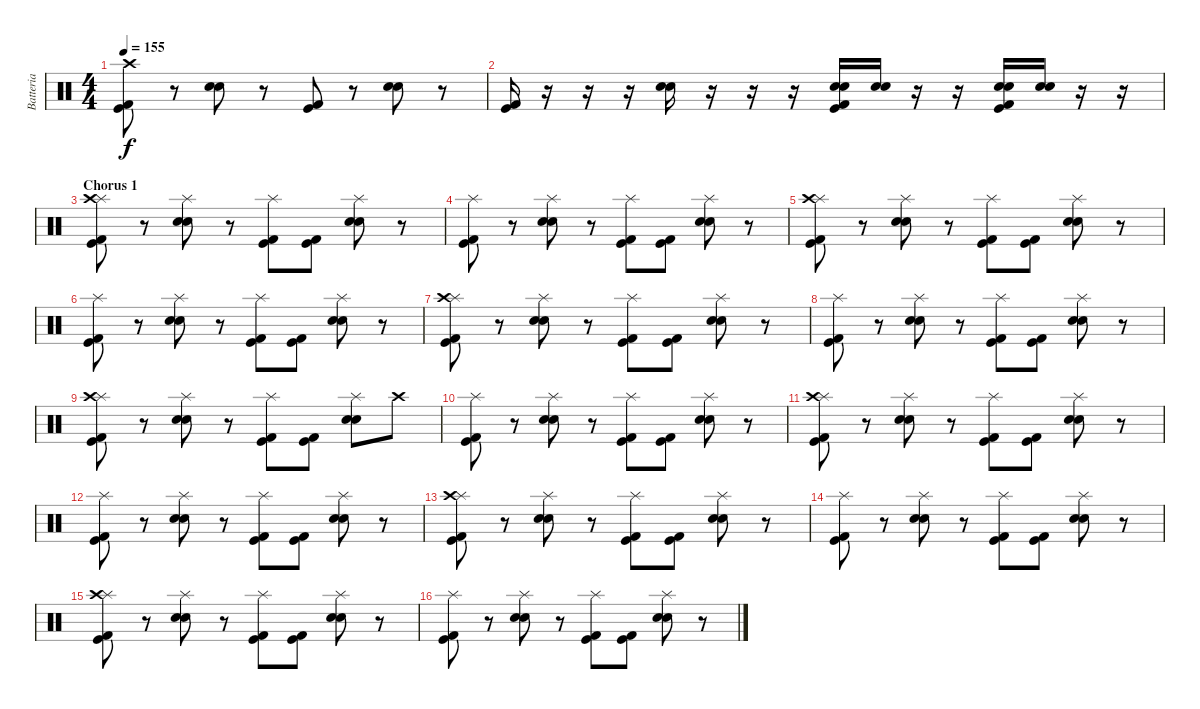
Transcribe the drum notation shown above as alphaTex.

\track ("Batteria" "Batteria") {instrument percussion}
\staff {score}
\articulation defaults
\ts (4 4)
\tempo 155
\clef neutral
\ks c
("Kick (hit)" "Kick (hit) 2" "Crash high (hit)").8{dy f} r.8 ("Electric Snare (hit)" "Snare (hit) 2").8 r.8 ("Kick (hit)" "Kick (hit) 2").8 r.8 ("Electric Snare (hit)" "Snare (hit) 2").8 r.8 |
("Kick (hit)" "Kick (hit) 2").16 r.16 r.16 r.16 ("Electric Snare (hit)" "Snare (hit) 2").16 r.16 r.16 r.16 ("Kick (hit)" "Kick (hit) 2" "Electric Snare (hit)" "Snare (hit) 2").16 ("Electric Snare (hit)" "Snare (hit) 2").16 r.16 r.16 ("Kick (hit)" "Kick (hit) 2" "Electric Snare (hit)" "Snare (hit) 2").16 ("Electric Snare (hit)" "Snare (hit) 2").16 r.16 r.16 |
\section ("" "Chorus 1")
("Kick (hit)" "Kick (hit) 2" "Splash (hit)" "Crash high (hit)").8 r.8 ("Electric Snare (hit)" "Snare (hit) 2" "Splash (hit)").8 r.8 ("Kick (hit)" "Kick (hit) 2" "Splash (hit)").8 ("Kick (hit)" "Kick (hit) 2").8 ("Electric Snare (hit)" "Snare (hit) 2" "Splash (hit)").8 r.8 |
("Kick (hit)" "Kick (hit) 2" "Splash (hit)").8 r.8 ("Electric Snare (hit)" "Snare (hit) 2" "Splash (hit)").8 r.8 ("Kick (hit)" "Kick (hit) 2" "Splash (hit)").8 ("Kick (hit)" "Kick (hit) 2").8 ("Electric Snare (hit)" "Snare (hit) 2" "Splash (hit)").8 r.8 |
("Kick (hit)" "Kick (hit) 2" "Splash (hit)" "Crash high (hit)").8 r.8 ("Electric Snare (hit)" "Snare (hit) 2" "Splash (hit)").8 r.8 ("Kick (hit)" "Kick (hit) 2" "Splash (hit)").8 ("Kick (hit)" "Kick (hit) 2").8 ("Electric Snare (hit)" "Snare (hit) 2" "Splash (hit)").8 r.8 |
("Kick (hit)" "Kick (hit) 2" "Splash (hit)").8 r.8 ("Electric Snare (hit)" "Snare (hit) 2" "Splash (hit)").8 r.8 ("Kick (hit)" "Kick (hit) 2" "Splash (hit)").8 ("Kick (hit)" "Kick (hit) 2").8 ("Electric Snare (hit)" "Snare (hit) 2" "Splash (hit)").8 r.8 |
("Kick (hit)" "Kick (hit) 2" "Splash (hit)" "Crash high (hit)").8 r.8 ("Electric Snare (hit)" "Snare (hit) 2" "Splash (hit)").8 r.8 ("Kick (hit)" "Kick (hit) 2" "Splash (hit)").8 ("Kick (hit)" "Kick (hit) 2").8 ("Electric Snare (hit)" "Snare (hit) 2" "Splash (hit)").8 r.8 |
("Kick (hit)" "Kick (hit) 2" "Splash (hit)").8 r.8 ("Electric Snare (hit)" "Snare (hit) 2" "Splash (hit)").8 r.8 ("Kick (hit)" "Kick (hit) 2" "Splash (hit)").8 ("Kick (hit)" "Kick (hit) 2").8 ("Electric Snare (hit)" "Snare (hit) 2" "Splash (hit)").8 r.8 |
("Kick (hit)" "Kick (hit) 2" "Splash (hit)" "Crash high (hit)").8 r.8 ("Electric Snare (hit)" "Snare (hit) 2" "Splash (hit)").8 r.8 ("Kick (hit)" "Kick (hit) 2" "Splash (hit)").8 ("Kick (hit)" "Kick (hit) 2").8 ("Electric Snare (hit)" "Snare (hit) 2" "Splash (hit)").8 "Crash high (hit)".8 |
("Kick (hit)" "Kick (hit) 2" "Splash (hit)").8 r.8 ("Electric Snare (hit)" "Snare (hit) 2" "Splash (hit)").8 r.8 ("Kick (hit)" "Kick (hit) 2" "Splash (hit)").8 ("Kick (hit)" "Kick (hit) 2").8 ("Electric Snare (hit)" "Snare (hit) 2" "Splash (hit)").8 r.8 |
("Kick (hit)" "Kick (hit) 2" "Splash (hit)" "Crash high (hit)").8 r.8 ("Electric Snare (hit)" "Snare (hit) 2" "Splash (hit)").8 r.8 ("Kick (hit)" "Kick (hit) 2" "Splash (hit)").8 ("Kick (hit)" "Kick (hit) 2").8 ("Electric Snare (hit)" "Snare (hit) 2" "Splash (hit)").8 r.8 |
("Kick (hit)" "Kick (hit) 2" "Splash (hit)").8 r.8 ("Electric Snare (hit)" "Snare (hit) 2" "Splash (hit)").8 r.8 ("Kick (hit)" "Kick (hit) 2" "Splash (hit)").8 ("Kick (hit)" "Kick (hit) 2").8 ("Electric Snare (hit)" "Snare (hit) 2" "Splash (hit)").8 r.8 |
("Kick (hit)" "Kick (hit) 2" "Splash (hit)" "Crash high (hit)").8 r.8 ("Electric Snare (hit)" "Snare (hit) 2" "Splash (hit)").8 r.8 ("Kick (hit)" "Kick (hit) 2" "Splash (hit)").8 ("Kick (hit)" "Kick (hit) 2").8 ("Electric Snare (hit)" "Snare (hit) 2" "Splash (hit)").8 r.8 |
("Kick (hit)" "Kick (hit) 2" "Splash (hit)").8 r.8 ("Electric Snare (hit)" "Snare (hit) 2" "Splash (hit)").8 r.8 ("Kick (hit)" "Kick (hit) 2" "Splash (hit)").8 ("Kick (hit)" "Kick (hit) 2").8 ("Electric Snare (hit)" "Snare (hit) 2" "Splash (hit)").8 r.8 |
("Kick (hit)" "Kick (hit) 2" "Splash (hit)" "Crash high (hit)").8 r.8 ("Electric Snare (hit)" "Snare (hit) 2" "Splash (hit)").8 r.8 ("Kick (hit)" "Kick (hit) 2" "Splash (hit)").8 ("Kick (hit)" "Kick (hit) 2").8 ("Electric Snare (hit)" "Snare (hit) 2" "Splash (hit)").8 r.8 |
("Kick (hit)" "Kick (hit) 2" "Splash (hit)").8 r.8 ("Electric Snare (hit)" "Snare (hit) 2" "Splash (hit)").8 r.8 ("Kick (hit)" "Kick (hit) 2" "Splash (hit)").8 ("Kick (hit)" "Kick (hit) 2").8 ("Electric Snare (hit)" "Snare (hit) 2" "Splash (hit)").8 r.8
